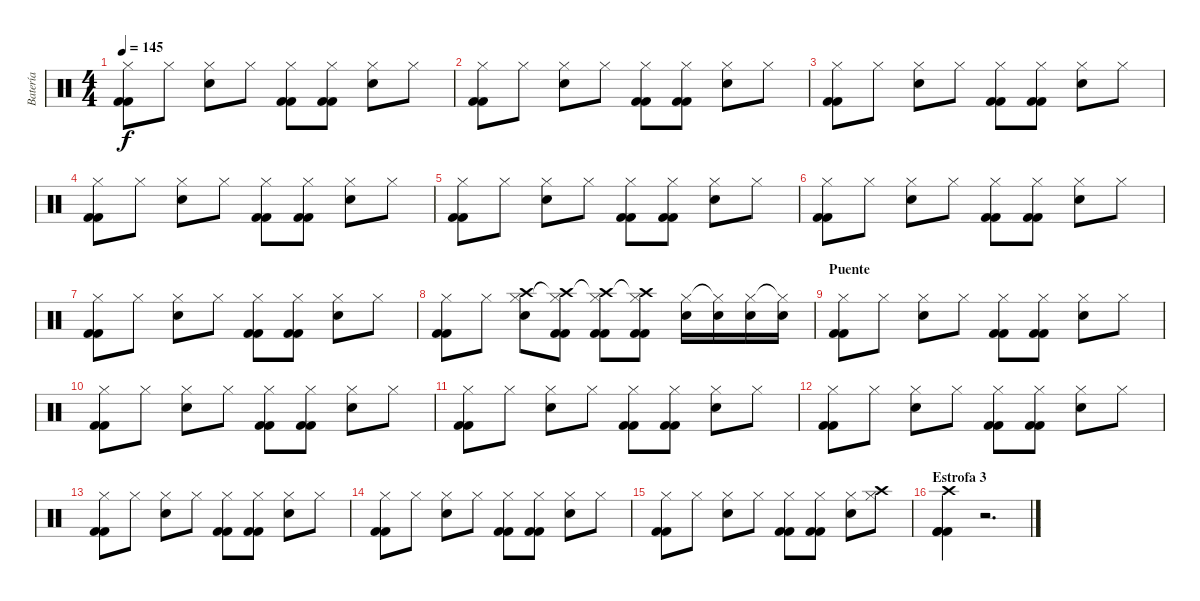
\track ("Batería" "Batería") {instrument percussion}
\staff {score}
\articulation defaults
\ts (4 4)
\tempo 145
\clef neutral
\ks c
("Kick (hit) 2" "Kick (hit) 2" "Hi-Hat (closed)").8{dy f} "Hi-Hat (closed)".8 ("Snare (hit) 2" "Hi-Hat (closed)").8 "Hi-Hat (closed)".8 ("Kick (hit) 2" "Kick (hit) 2" "Hi-Hat (closed)").8 ("Kick (hit) 2" "Kick (hit) 2" "Hi-Hat (closed)").8 ("Snare (hit) 2" "Hi-Hat (closed)").8 "Hi-Hat (closed)".8 |
("Kick (hit) 2" "Kick (hit) 2" "Hi-Hat (closed)").8 "Hi-Hat (closed)".8 ("Snare (hit) 2" "Hi-Hat (closed)").8 "Hi-Hat (closed)".8 ("Kick (hit) 2" "Kick (hit) 2" "Hi-Hat (closed)").8 ("Kick (hit) 2" "Kick (hit) 2" "Hi-Hat (closed)").8 ("Snare (hit) 2" "Hi-Hat (closed)").8 "Hi-Hat (closed)".8 |
("Kick (hit) 2" "Kick (hit) 2" "Hi-Hat (closed)").8 "Hi-Hat (closed)".8 ("Snare (hit) 2" "Hi-Hat (closed)").8 "Hi-Hat (closed)".8 ("Kick (hit) 2" "Kick (hit) 2" "Hi-Hat (closed)").8 ("Kick (hit) 2" "Kick (hit) 2" "Hi-Hat (closed)").8 ("Snare (hit) 2" "Hi-Hat (closed)").8 "Hi-Hat (closed)".8 |
("Kick (hit) 2" "Kick (hit) 2" "Hi-Hat (closed)").8 "Hi-Hat (closed)".8 ("Snare (hit) 2" "Hi-Hat (closed)").8 "Hi-Hat (closed)".8 ("Kick (hit) 2" "Kick (hit) 2" "Hi-Hat (closed)").8 ("Kick (hit) 2" "Kick (hit) 2" "Hi-Hat (closed)").8 ("Snare (hit) 2" "Hi-Hat (closed)").8 "Hi-Hat (closed)".8 |
("Kick (hit) 2" "Kick (hit) 2" "Hi-Hat (closed)").8 "Hi-Hat (closed)".8 ("Snare (hit) 2" "Hi-Hat (closed)").8 "Hi-Hat (closed)".8 ("Kick (hit) 2" "Kick (hit) 2" "Hi-Hat (closed)").8 ("Kick (hit) 2" "Kick (hit) 2" "Hi-Hat (closed)").8 ("Snare (hit) 2" "Hi-Hat (closed)").8 "Hi-Hat (closed)".8 |
("Kick (hit) 2" "Kick (hit) 2" "Hi-Hat (closed)").8 "Hi-Hat (closed)".8 ("Snare (hit) 2" "Hi-Hat (closed)").8 "Hi-Hat (closed)".8 ("Kick (hit) 2" "Kick (hit) 2" "Hi-Hat (closed)").8 ("Kick (hit) 2" "Kick (hit) 2" "Hi-Hat (closed)").8 ("Snare (hit) 2" "Hi-Hat (closed)").8 "Hi-Hat (closed)".8 |
("Kick (hit) 2" "Kick (hit) 2" "Hi-Hat (closed)").8 "Hi-Hat (closed)".8 ("Snare (hit) 2" "Hi-Hat (closed)").8 "Hi-Hat (closed)".8 ("Kick (hit) 2" "Kick (hit) 2" "Hi-Hat (closed)").8 ("Kick (hit) 2" "Kick (hit) 2" "Hi-Hat (closed)").8 ("Snare (hit) 2" "Hi-Hat (closed)").8 "Hi-Hat (closed)".8 |
("Kick (hit) 2" "Kick (hit) 2" "Hi-Hat (closed)").8 "Hi-Hat (closed)".8 ("Snare (hit) 2" "Crash high (hit)" "Hi-Hat (closed)").8 ("Kick (hit) 2" "Kick (hit) 2" "Crash high (hit)"{t} "Hi-Hat (closed)").8 ("Kick (hit) 2" "Kick (hit) 2" "Crash high (hit)"{t} "Hi-Hat (closed)").8 ("Kick (hit) 2" "Kick (hit) 2" "Crash high (hit)"{t} "Hi-Hat (closed)").8 ("Snare (hit) 2" "Hi-Hat (closed)").16 ("Snare (hit) 2" "Hi-Hat (closed)"{t}).16 ("Snare (hit) 2" "Hi-Hat (closed)").16 ("Snare (hit) 2" "Hi-Hat (closed)"{t}).16 |
\section ("" "Puente")
("Kick (hit) 2" "Kick (hit) 2" "Hi-Hat (closed)").8 "Hi-Hat (closed)".8 ("Snare (hit) 2" "Hi-Hat (closed)").8 "Hi-Hat (closed)".8 ("Kick (hit) 2" "Kick (hit) 2" "Hi-Hat (closed)").8 ("Kick (hit) 2" "Kick (hit) 2" "Hi-Hat (closed)").8 ("Snare (hit) 2" "Hi-Hat (closed)").8 "Hi-Hat (closed)".8 |
("Kick (hit) 2" "Kick (hit) 2" "Hi-Hat (closed)").8 "Hi-Hat (closed)".8 ("Snare (hit) 2" "Hi-Hat (closed)").8 "Hi-Hat (closed)".8 ("Kick (hit) 2" "Kick (hit) 2" "Hi-Hat (closed)").8 ("Kick (hit) 2" "Kick (hit) 2" "Hi-Hat (closed)").8 ("Snare (hit) 2" "Hi-Hat (closed)").8 "Hi-Hat (closed)".8 |
("Kick (hit) 2" "Kick (hit) 2" "Hi-Hat (closed)").8 "Hi-Hat (closed)".8 ("Snare (hit) 2" "Hi-Hat (closed)").8 "Hi-Hat (closed)".8 ("Kick (hit) 2" "Kick (hit) 2" "Hi-Hat (closed)").8 ("Kick (hit) 2" "Kick (hit) 2" "Hi-Hat (closed)").8 ("Snare (hit) 2" "Hi-Hat (closed)").8 "Hi-Hat (closed)".8 |
("Kick (hit) 2" "Kick (hit) 2" "Hi-Hat (closed)").8 "Hi-Hat (closed)".8 ("Snare (hit) 2" "Hi-Hat (closed)").8 "Hi-Hat (closed)".8 ("Kick (hit) 2" "Kick (hit) 2" "Hi-Hat (closed)").8 ("Kick (hit) 2" "Kick (hit) 2" "Hi-Hat (closed)").8 ("Snare (hit) 2" "Hi-Hat (closed)").8 "Hi-Hat (closed)".8 |
("Kick (hit) 2" "Kick (hit) 2" "Hi-Hat (closed)").8 "Hi-Hat (closed)".8 ("Snare (hit) 2" "Hi-Hat (closed)").8 "Hi-Hat (closed)".8 ("Kick (hit) 2" "Kick (hit) 2" "Hi-Hat (closed)").8 ("Kick (hit) 2" "Kick (hit) 2" "Hi-Hat (closed)").8 ("Snare (hit) 2" "Hi-Hat (closed)").8 "Hi-Hat (closed)".8 |
("Kick (hit) 2" "Kick (hit) 2" "Hi-Hat (closed)").8 "Hi-Hat (closed)".8 ("Snare (hit) 2" "Hi-Hat (closed)").8 "Hi-Hat (closed)".8 ("Kick (hit) 2" "Kick (hit) 2" "Hi-Hat (closed)").8 ("Kick (hit) 2" "Kick (hit) 2" "Hi-Hat (closed)").8 ("Snare (hit) 2" "Hi-Hat (closed)").8 "Hi-Hat (closed)".8 |
("Kick (hit) 2" "Kick (hit) 2" "Hi-Hat (closed)").8 "Hi-Hat (closed)".8 ("Snare (hit) 2" "Hi-Hat (closed)").8 "Hi-Hat (closed)".8 ("Kick (hit) 2" "Kick (hit) 2" "Hi-Hat (closed)").8 ("Kick (hit) 2" "Kick (hit) 2" "Hi-Hat (closed)").8 ("Snare (hit) 2" "Hi-Hat (closed)").8 ("Crash high (hit)" "Hi-Hat (closed)").8 |
\section ("" "Estrofa 3")
("Kick (hit) 2" "Kick (hit) 2" "Kick (hit) 2" "Crash high (hit)").4 r.2{d}
